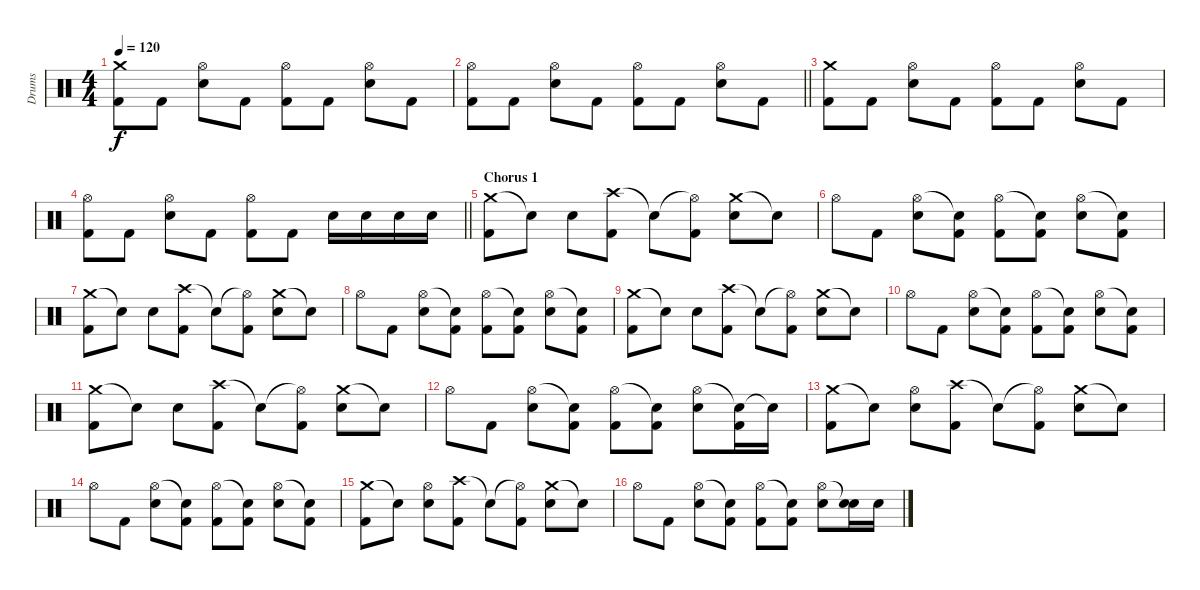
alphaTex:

\track ("Drums" "Drums") {instrument percussion}
\staff {score}
\articulation defaults
\ts (4 4)
\tempo 120
\clef neutral
\ks c
("Crash medium (hit)" "Kick (hit) 2").8{dy f} "Kick (hit) 2".8 ("Hi-Hat (open)" "Snare (hit) 2").8 "Kick (hit) 2".8 ("Hi-Hat (open)" "Kick (hit) 2").8 "Kick (hit) 2".8 ("Hi-Hat (open)" "Snare (hit) 2").8 "Kick (hit) 2".8 |
\barLineRight lightlight
("Hi-Hat (open)" "Kick (hit) 2").8 "Kick (hit) 2".8 ("Hi-Hat (open)" "Snare (hit) 2").8 "Kick (hit) 2".8 ("Hi-Hat (open)" "Kick (hit) 2").8 "Kick (hit) 2".8 ("Hi-Hat (open)" "Snare (hit) 2").8 "Kick (hit) 2".8 |
("Crash medium (hit)" "Kick (hit) 2").8 "Kick (hit) 2".8 ("Hi-Hat (open)" "Snare (hit) 2").8 "Kick (hit) 2".8 ("Hi-Hat (open)" "Kick (hit) 2").8 "Kick (hit) 2".8 ("Hi-Hat (open)" "Snare (hit) 2").8 "Kick (hit) 2".8 |
\barLineRight lightlight
("Hi-Hat (open)" "Kick (hit) 2").8 "Kick (hit) 2".8 ("Hi-Hat (open)" "Snare (hit) 2").8 "Kick (hit) 2".8 ("Hi-Hat (open)" "Kick (hit) 2").8 "Kick (hit) 2".8 "Snare (hit) 2".16 "Snare (hit) 2".16 "Snare (hit) 2".16 "Snare (hit) 2".16 |
\section ("" "Chorus 1")
("Crash medium (hit)" "Kick (hit) 2").8 "Snare (hit)"{t}.8 "Snare (hit) 2".8 ("Crash high (hit)" "Kick (hit) 2").8 "Snare (hit)"{t}.8 ("Hi-Hat (open)"{t} "Kick (hit) 2").8 ("Crash medium (hit)" "Snare (hit) 2").8 "Snare (hit)"{t}.8 |
"Hi-Hat (open)".8 "Kick (hit) 2".8 ("Hi-Hat (open)" "Snare (hit) 2").8 ("Snare (hit)"{t} "Kick (hit) 2").8 ("Hi-Hat (open)" "Kick (hit) 2").8 ("Snare (hit)"{t} "Kick (hit) 2").8 ("Hi-Hat (open)" "Snare (hit) 2").8 ("Snare (hit)"{t} "Kick (hit) 2").8 |
("Crash medium (hit)" "Kick (hit) 2").8 "Snare (hit)"{t}.8 "Snare (hit) 2".8 ("Crash high (hit)" "Kick (hit) 2").8 "Snare (hit)"{t}.8 ("Hi-Hat (open)"{t} "Kick (hit) 2").8 ("Crash medium (hit)" "Snare (hit) 2").8 "Snare (hit)"{t}.8 |
"Hi-Hat (open)".8 "Kick (hit) 2".8 ("Hi-Hat (open)" "Snare (hit) 2").8 ("Snare (hit)"{t} "Kick (hit) 2").8 ("Hi-Hat (open)" "Kick (hit) 2").8 ("Snare (hit)"{t} "Kick (hit) 2").8 ("Hi-Hat (open)" "Snare (hit) 2").8 ("Snare (hit)"{t} "Kick (hit) 2").8 |
("Crash medium (hit)" "Kick (hit) 2").8 "Snare (hit)"{t}.8 "Snare (hit) 2".8 ("Crash high (hit)" "Kick (hit) 2").8 "Snare (hit)"{t}.8 ("Hi-Hat (open)"{t} "Kick (hit) 2").8 ("Crash medium (hit)" "Snare (hit) 2").8 "Snare (hit)"{t}.8 |
"Hi-Hat (open)".8 "Kick (hit) 2".8 ("Hi-Hat (open)" "Snare (hit) 2").8 ("Snare (hit)"{t} "Kick (hit) 2").8 ("Hi-Hat (open)" "Kick (hit) 2").8 ("Snare (hit)"{t} "Kick (hit) 2").8 ("Hi-Hat (open)" "Snare (hit) 2").8 ("Snare (hit)"{t} "Kick (hit) 2").8 |
("Crash medium (hit)" "Kick (hit) 2").8 "Snare (hit)"{t}.8 "Snare (hit) 2".8 ("Crash high (hit)" "Kick (hit) 2").8 "Snare (hit)"{t}.8 ("Hi-Hat (open)"{t} "Kick (hit) 2").8 ("Crash medium (hit)" "Snare (hit) 2").8 "Snare (hit)"{t}.8 |
"Hi-Hat (open)".8 "Kick (hit) 2".8 ("Hi-Hat (open)" "Snare (hit) 2").8 ("Snare (hit)"{t} "Kick (hit) 2").8 ("Hi-Hat (open)" "Kick (hit) 2").8 ("Snare (hit)"{t} "Kick (hit) 2").8 ("Hi-Hat (open)" "Snare (hit) 2").8 ("Snare (hit)"{t} "Kick (hit) 2").16 "Snare (hit)"{t}.16 |
("Crash medium (hit)" "Kick (hit) 2").8 "Snare (hit)"{t}.8 ("Hi-Hat (open)" "Snare (hit) 2").8 ("Crash high (hit)" "Kick (hit) 2").8 "Snare (hit)"{t}.8 ("Hi-Hat (open)"{t} "Kick (hit) 2").8 ("Crash medium (hit)" "Snare (hit) 2").8 "Snare (hit)"{t}.8 |
"Hi-Hat (open)".8 "Kick (hit) 2".8 ("Hi-Hat (open)" "Snare (hit) 2").8 ("Snare (hit)"{t} "Kick (hit) 2").8 ("Hi-Hat (open)" "Kick (hit) 2").8 ("Snare (hit)"{t} "Kick (hit) 2").8 ("Hi-Hat (open)" "Snare (hit) 2").8 ("Snare (hit)"{t} "Kick (hit) 2").8 |
("Crash medium (hit)" "Kick (hit) 2").8 "Snare (hit)"{t}.8 ("Hi-Hat (open)" "Snare (hit) 2").8 ("Crash high (hit)" "Kick (hit) 2").8 "Snare (hit)"{t}.8 ("Hi-Hat (open)"{t} "Kick (hit) 2").8 ("Crash medium (hit)" "Snare (hit) 2").8 "Snare (hit)"{t}.8 |
"Hi-Hat (open)".8 "Kick (hit) 2".8 ("Hi-Hat (open)" "Snare (hit) 2").8 ("Snare (hit)"{t} "Kick (hit) 2").8 ("Hi-Hat (open)" "Kick (hit) 2").8 ("Snare (hit)"{t} "Kick (hit) 2").8 ("Hi-Hat (open)" "Snare (hit) 2").8 ("Snare (hit)"{t} "Snare (hit) 2").16 "Snare (hit) 2".16
